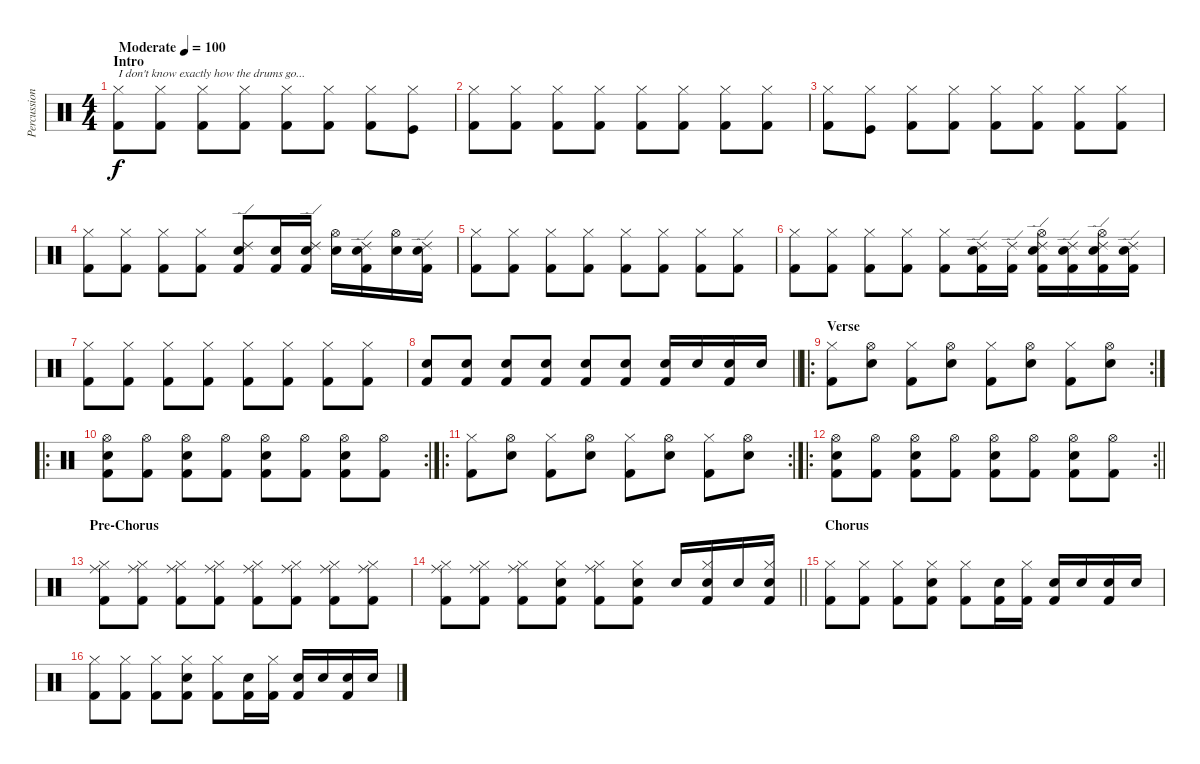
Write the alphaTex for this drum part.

\track ("Percussion" "Percussion") {instrument percussion}
\staff {score}
\articulation defaults
\ts (4 4)
\section ("" "Intro")
\tempo (100 "Moderate")
\clef neutral
\ks c
("Kick (hit) 2" "Hi-Hat (closed)").8{txt "I don't know exactly how the drums go..." dy f} ("Kick (hit) 2" "Hi-Hat (closed)").8 ("Kick (hit) 2" "Hi-Hat (closed)").8 ("Kick (hit) 2" "Hi-Hat (closed)").8 ("Kick (hit) 2" "Hi-Hat (closed)").8 ("Kick (hit) 2" "Hi-Hat (closed)").8 ("Kick (hit) 2" "Hi-Hat (closed)").8 ("Kick (hit)" "Hi-Hat (closed)").8 |
("Kick (hit) 2" "Hi-Hat (closed)").8 ("Kick (hit) 2" "Hi-Hat (closed)").8 ("Kick (hit) 2" "Hi-Hat (closed)").8 ("Kick (hit) 2" "Hi-Hat (closed)").8 ("Kick (hit) 2" "Hi-Hat (closed)").8 ("Kick (hit) 2" "Hi-Hat (closed)").8 ("Kick (hit) 2" "Hi-Hat (closed)").8 ("Kick (hit) 2" "Hi-Hat (closed)").8 |
("Kick (hit) 2" "Hi-Hat (closed)").8 ("Kick (hit)" "Hi-Hat (closed)").8 ("Kick (hit) 2" "Hi-Hat (closed)").8 ("Kick (hit) 2" "Hi-Hat (closed)").8 ("Kick (hit) 2" "Hi-Hat (closed)").8 ("Kick (hit) 2" "Hi-Hat (closed)").8 ("Kick (hit) 2" "Hi-Hat (closed)").8 ("Kick (hit) 2" "Hi-Hat (closed)").8 |
("Kick (hit) 2" "Hi-Hat (closed)").8 ("Kick (hit) 2" "Hi-Hat (closed)").8 ("Kick (hit) 2" "Hi-Hat (closed)").8 ("Kick (hit) 2" "Hi-Hat (closed)").8 ("Kick (hit) 2" "Ride (edge) 2" "Snare (hit) 2").8 ("Kick (hit) 2" "Snare (hit) 2").16 ("Kick (hit) 2" "Ride (edge) 2" "Snare (hit) 2").16 ("Snare (hit) 2" "Hi-Hat (open)").16 ("Kick (hit) 2" "Ride (edge) 2" "Snare (hit) 2").16 ("Snare (hit) 2" "Hi-Hat (open)").16 ("Kick (hit) 2" "Ride (edge) 2" "Snare (hit) 2").16 |
("Kick (hit) 2" "Hi-Hat (closed)").8 ("Kick (hit) 2" "Hi-Hat (closed)").8 ("Kick (hit) 2" "Hi-Hat (closed)").8 ("Kick (hit) 2" "Hi-Hat (closed)").8 ("Kick (hit) 2" "Hi-Hat (closed)").8 ("Kick (hit) 2" "Hi-Hat (closed)").8 ("Kick (hit) 2" "Hi-Hat (closed)").8 ("Kick (hit) 2" "Hi-Hat (closed)").8 |
("Kick (hit) 2" "Hi-Hat (closed)").8 ("Kick (hit) 2" "Hi-Hat (closed)").8 ("Kick (hit) 2" "Hi-Hat (closed)").8 ("Kick (hit) 2" "Hi-Hat (closed)").8 ("Kick (hit) 2" "Hi-Hat (closed)").8 ("Kick (hit) 2" "Ride (edge) 2" "Snare (hit) 2").16 ("Kick (hit) 2" "Ride (edge) 2").16 ("Kick (hit) 2" "Ride (edge) 2" "Snare (hit) 2" "Hi-Hat (open)").16 ("Kick (hit) 2" "Ride (edge) 2" "Snare (hit) 2").16 ("Kick (hit) 2" "Ride (edge) 2" "Snare (hit) 2" "Hi-Hat (open)").16 ("Kick (hit) 2" "Ride (edge) 2" "Snare (hit) 2").16 |
("Kick (hit) 2" "Hi-Hat (closed)").8 ("Kick (hit) 2" "Hi-Hat (closed)").8 ("Kick (hit) 2" "Hi-Hat (closed)").8 ("Kick (hit) 2" "Hi-Hat (closed)").8 ("Kick (hit) 2" "Hi-Hat (closed)").8 ("Kick (hit) 2" "Hi-Hat (closed)").8 ("Kick (hit) 2" "Hi-Hat (closed)").8 ("Kick (hit) 2" "Hi-Hat (closed)").8 |
\barLineRight lightlight
("Kick (hit) 2" "Snare (hit) 2").8 ("Kick (hit) 2" "Snare (hit) 2").8 ("Kick (hit) 2" "Snare (hit) 2").8 ("Kick (hit) 2" "Snare (hit) 2").8 ("Kick (hit) 2" "Snare (hit) 2").8 ("Kick (hit) 2" "Snare (hit) 2").8 ("Kick (hit) 2" "Snare (hit) 2").16 "Snare (hit) 2".16 ("Kick (hit) 2" "Snare (hit) 2").16 "Snare (hit) 2".16 |
\ro
\rc 2
\section ("" "Verse")
("Kick (hit) 2" "Hi-Hat (closed)").8 ("Snare (hit) 2" "Hi-Hat (open)").8 ("Kick (hit) 2" "Hi-Hat (closed)").8 ("Snare (hit) 2" "Hi-Hat (open)").8 ("Kick (hit) 2" "Hi-Hat (closed)").8 ("Snare (hit) 2" "Hi-Hat (open)").8 ("Kick (hit) 2" "Hi-Hat (closed)").8 ("Snare (hit) 2" "Hi-Hat (open)").8 |
\ro
\rc 2
("Kick (hit) 2" "Hi-Hat (open)" "Snare (hit) 2").8 ("Kick (hit) 2" "Hi-Hat (open)").8 ("Kick (hit) 2" "Hi-Hat (open)" "Snare (hit) 2").8 ("Kick (hit) 2" "Hi-Hat (open)").8 ("Kick (hit) 2" "Hi-Hat (open)" "Snare (hit) 2").8 ("Kick (hit) 2" "Hi-Hat (open)").8 ("Kick (hit) 2" "Hi-Hat (open)" "Snare (hit) 2").8 ("Kick (hit) 2" "Hi-Hat (open)").8 |
\ro
\rc 2
("Kick (hit) 2" "Hi-Hat (closed)").8 ("Snare (hit) 2" "Hi-Hat (open)").8 ("Kick (hit) 2" "Hi-Hat (closed)").8 ("Snare (hit) 2" "Hi-Hat (open)").8 ("Kick (hit) 2" "Hi-Hat (closed)").8 ("Snare (hit) 2" "Hi-Hat (open)").8 ("Kick (hit) 2" "Hi-Hat (closed)").8 ("Snare (hit) 2" "Hi-Hat (open)").8 |
\ro
\rc 2
\barLineRight lightlight
("Kick (hit) 2" "Hi-Hat (open)" "Snare (hit) 2").8 ("Kick (hit) 2" "Hi-Hat (open)").8 ("Kick (hit) 2" "Hi-Hat (open)" "Snare (hit) 2").8 ("Kick (hit) 2" "Hi-Hat (open)").8 ("Kick (hit) 2" "Hi-Hat (open)" "Snare (hit) 2").8 ("Kick (hit) 2" "Hi-Hat (open)").8 ("Kick (hit) 2" "Hi-Hat (open)" "Snare (hit) 2").8 ("Kick (hit) 2" "Hi-Hat (open)").8 |
\section ("" "Pre-Chorus")
("Kick (hit) 2" "Hi-Hat (closed)" "Ride (middle)").8 ("Kick (hit) 2" "Hi-Hat (closed)" "Ride (middle)").8 ("Kick (hit) 2" "Hi-Hat (closed)" "Ride (middle)").8 ("Kick (hit) 2" "Hi-Hat (closed)" "Ride (middle)").8 ("Kick (hit) 2" "Hi-Hat (closed)" "Ride (middle)").8 ("Kick (hit) 2" "Hi-Hat (closed)" "Ride (middle)").8 ("Kick (hit) 2" "Hi-Hat (closed)" "Ride (middle)").8 ("Kick (hit) 2" "Hi-Hat (closed)" "Ride (middle)").8 |
\barLineRight lightlight
("Kick (hit) 2" "Hi-Hat (closed)" "Ride (middle)").8 ("Kick (hit) 2" "Hi-Hat (closed)" "Ride (middle)").8 ("Kick (hit) 2" "Hi-Hat (closed)" "Ride (middle)").8 ("Kick (hit) 2" "Hi-Hat (closed)" "Snare (hit) 2").8 ("Kick (hit) 2" "Hi-Hat (closed)" "Ride (middle)").8 ("Kick (hit) 2" "Hi-Hat (closed)" "Snare (hit) 2").8 "Snare (hit) 2".16 ("Kick (hit) 2" "Hi-Hat (closed)" "Snare (hit) 2").16 "Snare (hit) 2".16 ("Kick (hit) 2" "Hi-Hat (closed)" "Snare (hit) 2").16 |
\section ("" "Chorus")
("Kick (hit) 2" "Hi-Hat (closed)").8 ("Kick (hit) 2" "Hi-Hat (closed)").8 ("Kick (hit) 2" "Hi-Hat (closed)").8 ("Kick (hit) 2" "Snare (hit) 2" "Hi-Hat (closed)").8 ("Kick (hit) 2" "Hi-Hat (closed)").8 ("Kick (hit) 2" "Snare (hit) 2").16 ("Kick (hit) 2" "Hi-Hat (closed)").16 ("Kick (hit) 2" "Snare (hit) 2").16 "Snare (hit) 2".16 ("Kick (hit) 2" "Snare (hit) 2").16 "Snare (hit) 2".16 |
("Kick (hit) 2" "Hi-Hat (closed)").8 ("Kick (hit) 2" "Hi-Hat (closed)").8 ("Kick (hit) 2" "Hi-Hat (closed)").8 ("Kick (hit) 2" "Snare (hit) 2" "Hi-Hat (closed)").8 ("Kick (hit) 2" "Hi-Hat (closed)").8 ("Kick (hit) 2" "Snare (hit) 2").16 ("Kick (hit) 2" "Hi-Hat (closed)").16 ("Kick (hit) 2" "Snare (hit) 2").16 "Snare (hit) 2".16 ("Kick (hit) 2" "Snare (hit) 2").16 "Snare (hit) 2".16
